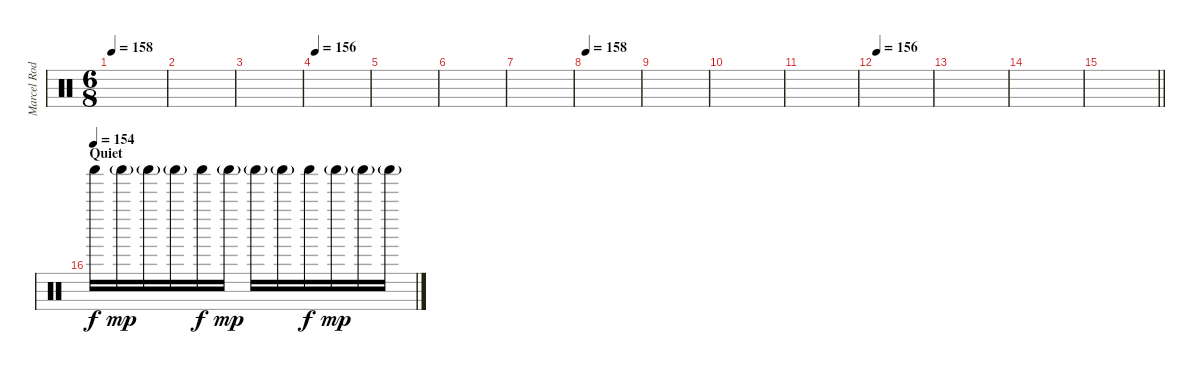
\track ("Marcel Rodriguez-Lopez" "Marcel Rod") {instrument percussion}
\staff {score}
\articulation defaults
\ts (6 8)
\tempo 158
\clef neutral
\ks c
|
|
|
\tempo 156
|
|
|
|
\tempo 158
|
|
|
|
\tempo 156
|
|
|
\barLineRight lightlight
|
\section ("" "Quiet")
\tempo (154)
"Shaker (hit)".16 "Shaker (hit)"{g}.16{dy mp} "Shaker (hit)"{g}.16 "Shaker (hit)"{g}.16 "Shaker (hit)".16{dy f} "Shaker (hit)"{g}.16{dy mp} "Shaker (hit)"{g}.16 "Shaker (hit)"{g}.16 "Shaker (hit)".16{dy f} "Shaker (hit)"{g}.16{dy mp} "Shaker (hit)"{g}.16 "Shaker (hit)"{g}.16
